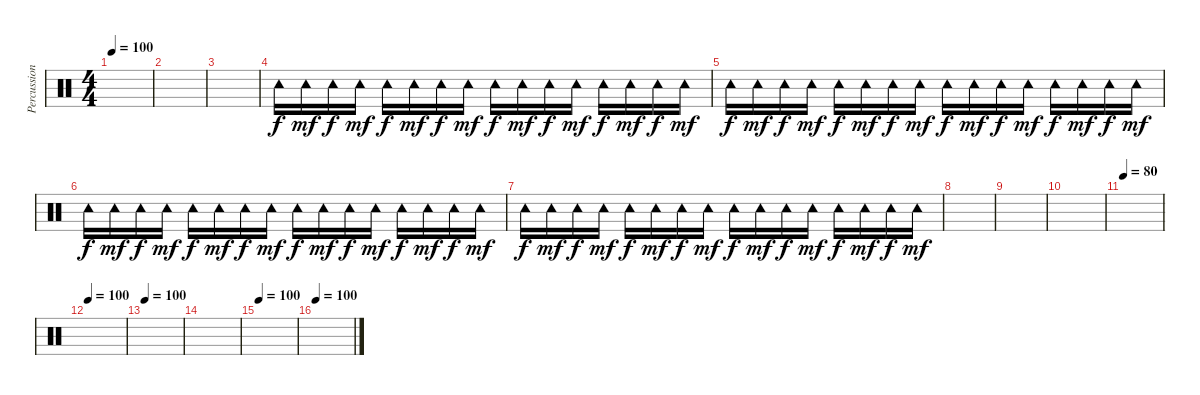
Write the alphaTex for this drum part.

\track ("Percussions" "Percussion") {instrument percussion}
\staff {score}
\articulation defaults
\ts (4 4)
\tempo 100
\clef neutral
\ks c
|
|
|
"Tambourine (hit)".16 "Tambourine (hit)".16{dy mf} "Tambourine (hit)".16{dy f} "Tambourine (hit)".16{dy mf} "Tambourine (hit)".16{dy f} "Tambourine (hit)".16{dy mf} "Tambourine (hit)".16{dy f} "Tambourine (hit)".16{dy mf} "Tambourine (hit)".16{dy f} "Tambourine (hit)".16{dy mf} "Tambourine (hit)".16{dy f} "Tambourine (hit)".16{dy mf} "Tambourine (hit)".16{dy f} "Tambourine (hit)".16{dy mf} "Tambourine (hit)".16{dy f} "Tambourine (hit)".16{dy mf} |
"Tambourine (hit)".16{dy f} "Tambourine (hit)".16{dy mf} "Tambourine (hit)".16{dy f} "Tambourine (hit)".16{dy mf} "Tambourine (hit)".16{dy f} "Tambourine (hit)".16{dy mf} "Tambourine (hit)".16{dy f} "Tambourine (hit)".16{dy mf} "Tambourine (hit)".16{dy f} "Tambourine (hit)".16{dy mf} "Tambourine (hit)".16{dy f} "Tambourine (hit)".16{dy mf} "Tambourine (hit)".16{dy f} "Tambourine (hit)".16{dy mf} "Tambourine (hit)".16{dy f} "Tambourine (hit)".16{dy mf} |
"Tambourine (hit)".16{dy f} "Tambourine (hit)".16{dy mf} "Tambourine (hit)".16{dy f} "Tambourine (hit)".16{dy mf} "Tambourine (hit)".16{dy f} "Tambourine (hit)".16{dy mf} "Tambourine (hit)".16{dy f} "Tambourine (hit)".16{dy mf} "Tambourine (hit)".16{dy f} "Tambourine (hit)".16{dy mf} "Tambourine (hit)".16{dy f} "Tambourine (hit)".16{dy mf} "Tambourine (hit)".16{dy f} "Tambourine (hit)".16{dy mf} "Tambourine (hit)".16{dy f} "Tambourine (hit)".16{dy mf} |
"Tambourine (hit)".16{dy f} "Tambourine (hit)".16{dy mf} "Tambourine (hit)".16{dy f} "Tambourine (hit)".16{dy mf} "Tambourine (hit)".16{dy f} "Tambourine (hit)".16{dy mf} "Tambourine (hit)".16{dy f} "Tambourine (hit)".16{dy mf} "Tambourine (hit)".16{dy f} "Tambourine (hit)".16{dy mf} "Tambourine (hit)".16{dy f} "Tambourine (hit)".16{dy mf} "Tambourine (hit)".16{dy f} "Tambourine (hit)".16{dy mf} "Tambourine (hit)".16{dy f} "Tambourine (hit)".16{dy mf} |
|
|
|
\tempo 80
|
\tempo 100
|
\tempo 100
|
|
\tempo 100
|
\tempo 100
